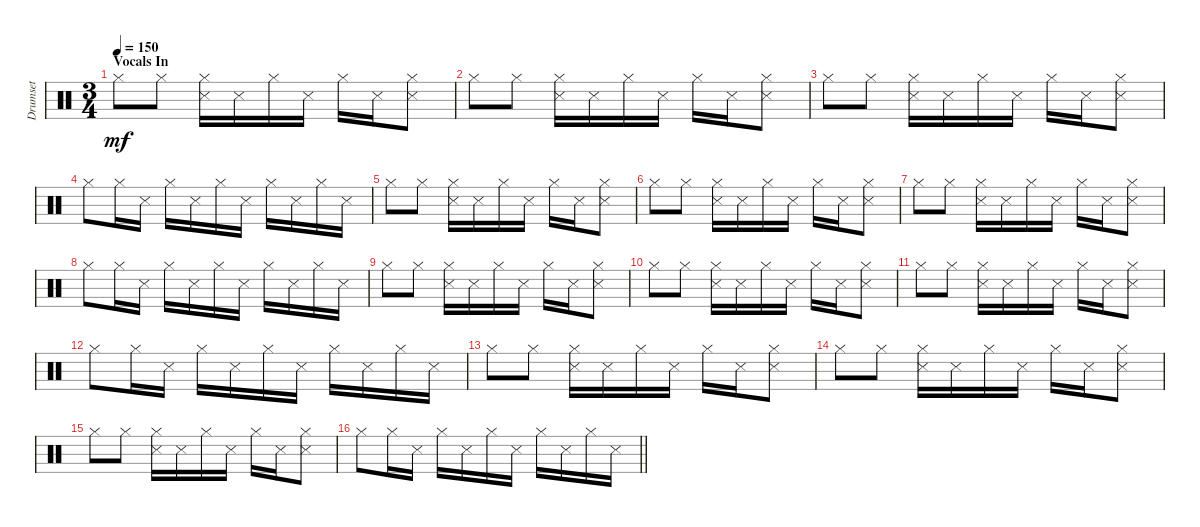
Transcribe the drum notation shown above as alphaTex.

\track ("Drumset" "Drumset") {instrument percussion}
\staff {score}
\articulation defaults
\ts (3 4)
\section ("" "Vocals In")
\tempo 150
\clef neutral
\ks c "Hi-Hat (closed)".8{dy mf} "Hi-Hat (closed)".8
("Hi-Hat (closed)" "Snare (side stick) 3").16 "Snare (side stick) 3".16 "Hi-Hat (closed)".16 "Snare (side stick) 3".16 "Hi-Hat (closed)".16 "Snare (side stick) 3".16 ("Hi-Hat (closed)" "Snare (side stick) 3").8 |
"Hi-Hat (closed)".8 "Hi-Hat (closed)".8 ("Hi-Hat (closed)" "Snare (side stick) 3").16 "Snare (side stick) 3".16 "Hi-Hat (closed)".16 "Snare (side stick) 3".16 "Hi-Hat (closed)".16 "Snare (side stick) 3".16 ("Hi-Hat (closed)" "Snare (side stick) 3").8 |
"Hi-Hat (closed)".8 "Hi-Hat (closed)".8 ("Hi-Hat (closed)" "Snare (side stick) 3").16 "Snare (side stick) 3".16 "Hi-Hat (closed)".16 "Snare (side stick) 3".16 "Hi-Hat (closed)".16 "Snare (side stick) 3".16 ("Hi-Hat (closed)" "Snare (side stick) 3").8 |
"Hi-Hat (closed)".8 "Hi-Hat (closed)".16 "Snare (side stick) 3".16 "Hi-Hat (closed)".16 "Snare (side stick) 3".16 "Hi-Hat (closed)".16 "Snare (side stick) 3".16 "Hi-Hat (closed)".16 "Snare (side stick) 3".16 "Hi-Hat (closed)".16 "Snare (side stick) 3".16 |
"Hi-Hat (closed)".8 "Hi-Hat (closed)".8 ("Hi-Hat (closed)" "Snare (side stick) 3").16 "Snare (side stick) 3".16 "Hi-Hat (closed)".16 "Snare (side stick) 3".16 "Hi-Hat (closed)".16 "Snare (side stick) 3".16 ("Hi-Hat (closed)" "Snare (side stick) 3").8 |
"Hi-Hat (closed)".8 "Hi-Hat (closed)".8 ("Hi-Hat (closed)" "Snare (side stick) 3").16 "Snare (side stick) 3".16 "Hi-Hat (closed)".16 "Snare (side stick) 3".16 "Hi-Hat (closed)".16 "Snare (side stick) 3".16 ("Hi-Hat (closed)" "Snare (side stick) 3").8 |
"Hi-Hat (closed)".8 "Hi-Hat (closed)".8 ("Hi-Hat (closed)" "Snare (side stick) 3").16 "Snare (side stick) 3".16 "Hi-Hat (closed)".16 "Snare (side stick) 3".16 "Hi-Hat (closed)".16 "Snare (side stick) 3".16 ("Hi-Hat (closed)" "Snare (side stick) 3").8 |
"Hi-Hat (closed)".8 "Hi-Hat (closed)".16 "Snare (side stick) 3".16 "Hi-Hat (closed)".16 "Snare (side stick) 3".16 "Hi-Hat (closed)".16 "Snare (side stick) 3".16 "Hi-Hat (closed)".16 "Snare (side stick) 3".16 "Hi-Hat (closed)".16 "Snare (side stick) 3".16 |
"Hi-Hat (closed)".8 "Hi-Hat (closed)".8 ("Hi-Hat (closed)" "Snare (side stick) 3").16 "Snare (side stick) 3".16 "Hi-Hat (closed)".16 "Snare (side stick) 3".16 "Hi-Hat (closed)".16 "Snare (side stick) 3".16 ("Hi-Hat (closed)" "Snare (side stick) 3").8 |
"Hi-Hat (closed)".8 "Hi-Hat (closed)".8 ("Hi-Hat (closed)" "Snare (side stick) 3").16 "Snare (side stick) 3".16 "Hi-Hat (closed)".16 "Snare (side stick) 3".16 "Hi-Hat (closed)".16 "Snare (side stick) 3".16 ("Hi-Hat (closed)" "Snare (side stick) 3").8 |
"Hi-Hat (closed)".8 "Hi-Hat (closed)".8 ("Hi-Hat (closed)" "Snare (side stick) 3").16 "Snare (side stick) 3".16 "Hi-Hat (closed)".16 "Snare (side stick) 3".16 "Hi-Hat (closed)".16 "Snare (side stick) 3".16 ("Hi-Hat (closed)" "Snare (side stick) 3").8 |
"Hi-Hat (closed)".8 "Hi-Hat (closed)".16 "Snare (side stick) 3".16 "Hi-Hat (closed)".16 "Snare (side stick) 3".16 "Hi-Hat (closed)".16 "Snare (side stick) 3".16 "Hi-Hat (closed)".16 "Snare (side stick) 3".16 "Hi-Hat (closed)".16 "Snare (side stick) 3".16 |
"Hi-Hat (closed)".8 "Hi-Hat (closed)".8 ("Hi-Hat (closed)" "Snare (side stick) 3").16 "Snare (side stick) 3".16 "Hi-Hat (closed)".16 "Snare (side stick) 3".16 "Hi-Hat (closed)".16 "Snare (side stick) 3".16 ("Hi-Hat (closed)" "Snare (side stick) 3").8 |
"Hi-Hat (closed)".8 "Hi-Hat (closed)".8 ("Hi-Hat (closed)" "Snare (side stick) 3").16 "Snare (side stick) 3".16 "Hi-Hat (closed)".16 "Snare (side stick) 3".16 "Hi-Hat (closed)".16 "Snare (side stick) 3".16 ("Hi-Hat (closed)" "Snare (side stick) 3").8 |
"Hi-Hat (closed)".8 "Hi-Hat (closed)".8 ("Hi-Hat (closed)" "Snare (side stick) 3").16 "Snare (side stick) 3".16 "Hi-Hat (closed)".16 "Snare (side stick) 3".16 "Hi-Hat (closed)".16 "Snare (side stick) 3".16 ("Hi-Hat (closed)" "Snare (side stick) 3").8 |
\barLineRight lightlight "Hi-Hat (closed)".8 "Hi-Hat (closed)".16 "Snare (side stick) 3".16 "Hi-Hat (closed)".16 "Snare (side stick) 3".16 "Hi-Hat (closed)".16 "Snare (side stick) 3".16 "Hi-Hat (closed)".16 "Snare (side stick) 3".16 "Hi-Hat (closed)".16 "Snare (side stick) 3".16
